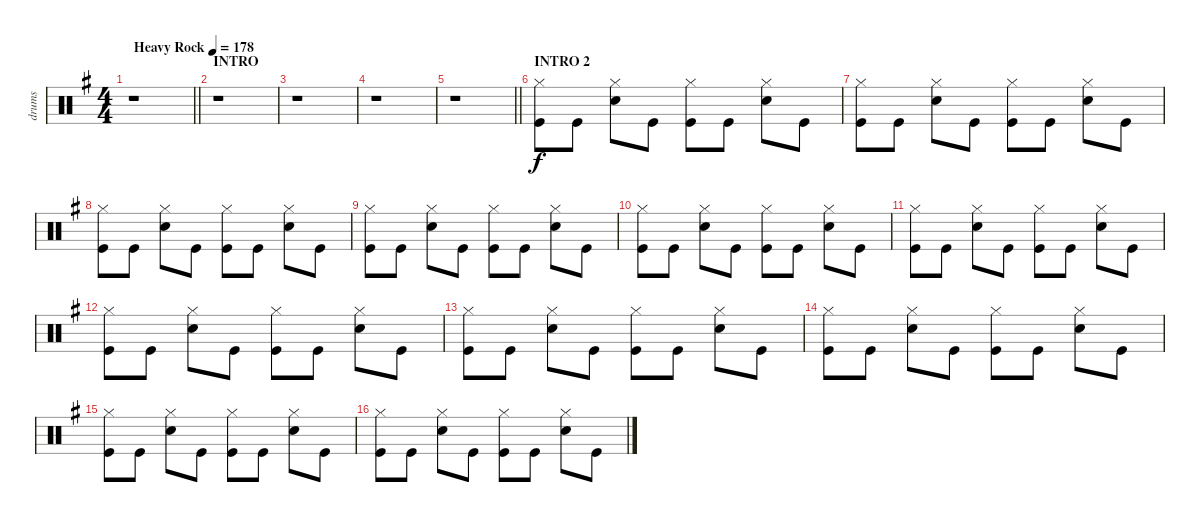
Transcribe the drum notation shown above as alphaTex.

\track ("drums" "drums") {instrument percussion}
\staff {score}
\articulation defaults
\ts (4 4)
\tempo (178 "Heavy Rock")
\clef neutral
\barLineRight lightlight
\ks eminor
r.1{dy f} |
\section ("" "INTRO")
r.1 |
r.1 |
r.1 |
\barLineRight lightlight
r.1 |
\section ("" "INTRO 2")
("Hi-Hat (closed)" "Kick (hit)").8 "Kick (hit)".8 ("Hi-Hat (closed)" "Snare (hit) 2").8 "Kick (hit)".8 ("Hi-Hat (closed)" "Kick (hit)").8 "Kick (hit)".8 ("Hi-Hat (closed)" "Snare (hit) 2").8 "Kick (hit)".8 |
("Hi-Hat (closed)" "Kick (hit)").8 "Kick (hit)".8 ("Hi-Hat (closed)" "Snare (hit) 2").8 "Kick (hit)".8 ("Hi-Hat (closed)" "Kick (hit)").8 "Kick (hit)".8 ("Hi-Hat (closed)" "Snare (hit) 2").8 "Kick (hit)".8 |
("Hi-Hat (closed)" "Kick (hit)").8 "Kick (hit)".8 ("Hi-Hat (closed)" "Snare (hit) 2").8 "Kick (hit)".8 ("Hi-Hat (closed)" "Kick (hit)").8 "Kick (hit)".8 ("Hi-Hat (closed)" "Snare (hit) 2").8 "Kick (hit)".8 |
("Hi-Hat (closed)" "Kick (hit)").8 "Kick (hit)".8 ("Hi-Hat (closed)" "Snare (hit) 2").8 "Kick (hit)".8 ("Hi-Hat (closed)" "Kick (hit)").8 "Kick (hit)".8 ("Hi-Hat (closed)" "Snare (hit) 2").8 "Kick (hit)".8 |
("Hi-Hat (closed)" "Kick (hit)").8 "Kick (hit)".8 ("Hi-Hat (closed)" "Snare (hit) 2").8 "Kick (hit)".8 ("Hi-Hat (closed)" "Kick (hit)").8 "Kick (hit)".8 ("Hi-Hat (closed)" "Snare (hit) 2").8 "Kick (hit)".8 |
("Hi-Hat (closed)" "Kick (hit)").8 "Kick (hit)".8 ("Hi-Hat (closed)" "Snare (hit) 2").8 "Kick (hit)".8 ("Hi-Hat (closed)" "Kick (hit)").8 "Kick (hit)".8 ("Hi-Hat (closed)" "Snare (hit) 2").8 "Kick (hit)".8 |
("Hi-Hat (closed)" "Kick (hit)").8 "Kick (hit)".8 ("Hi-Hat (closed)" "Snare (hit) 2").8 "Kick (hit)".8 ("Hi-Hat (closed)" "Kick (hit)").8 "Kick (hit)".8 ("Hi-Hat (closed)" "Snare (hit) 2").8 "Kick (hit)".8 |
("Hi-Hat (closed)" "Kick (hit)").8 "Kick (hit)".8 ("Hi-Hat (closed)" "Snare (hit) 2").8 "Kick (hit)".8 ("Hi-Hat (closed)" "Kick (hit)").8 "Kick (hit)".8 ("Hi-Hat (closed)" "Snare (hit) 2").8 "Kick (hit)".8 |
("Hi-Hat (closed)" "Kick (hit)").8 "Kick (hit)".8 ("Hi-Hat (closed)" "Snare (hit) 2").8 "Kick (hit)".8 ("Hi-Hat (closed)" "Kick (hit)").8 "Kick (hit)".8 ("Hi-Hat (closed)" "Snare (hit) 2").8 "Kick (hit)".8 |
("Hi-Hat (closed)" "Kick (hit)").8 "Kick (hit)".8 ("Hi-Hat (closed)" "Snare (hit) 2").8 "Kick (hit)".8 ("Hi-Hat (closed)" "Kick (hit)").8 "Kick (hit)".8 ("Hi-Hat (closed)" "Snare (hit) 2").8 "Kick (hit)".8 |
("Hi-Hat (closed)" "Kick (hit)").8 "Kick (hit)".8 ("Hi-Hat (closed)" "Snare (hit) 2").8 "Kick (hit)".8 ("Hi-Hat (closed)" "Kick (hit)").8 "Kick (hit)".8 ("Hi-Hat (closed)" "Snare (hit) 2").8 "Kick (hit)".8
